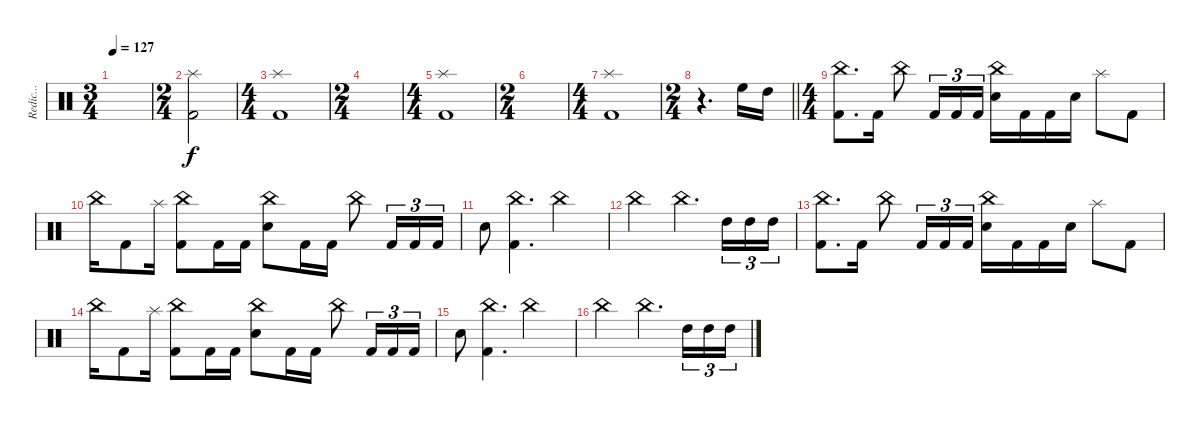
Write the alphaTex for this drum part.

\track ("Redic..." "Redic...") {instrument percussion}
\staff {score}
\articulation defaults
\ts (3 4)
\tempo 127
\clef neutral
\ks c
|
\ts (2 4)
("Splash (hit)" "Kick (hit) 2").2 |
\ts (4 4)
("Splash (hit)" "Kick (hit) 2").1 |
\ts (2 4)
|
\ts (4 4)
("Splash (hit)" "Kick (hit) 2").1 |
\ts (2 4)
|
\ts (4 4)
("Splash (hit)" "Kick (hit) 2").1 |
\ts (2 4)
\barLineRight lightlight
r.4{d} "High Floor Tom (hit)".16 "High Tom (hit)".16 |
\ts (4 4)
\section ("" "")
("China (hit)" "Kick (hit) 2").8{d} "Kick (hit) 2".16 "China (hit)".8 "Kick (hit) 2".16{tu (3 2)} "Kick (hit) 2".16{tu (3 2)} "Kick (hit) 2".16{tu (3 2)} ("China (hit)" "Electric Snare (hit)").16 "Kick (hit) 2".16 "Kick (hit) 2".16 "Electric Snare (hit)".16 "Splash (hit)".8 "Kick (hit) 2".8 |
"China (hit)".16 "Kick (hit) 2".8 "Splash (hit)".16 ("China (hit)" "Kick (hit) 2").8 "Kick (hit) 2".16 "Kick (hit) 2".16 ("China (hit)" "Electric Snare (hit)").8 "Kick (hit) 2".16 "Kick (hit) 2".16 "China (hit)".8 "Kick (hit) 2".16{tu (3 2)} "Kick (hit) 2".16{tu (3 2)} "Kick (hit) 2".16{tu (3 2)} |
"Electric Snare (hit)".8 ("China (hit)" "Kick (hit) 2").4{d} "China (hit)".2 |
"China (hit)".2 "China (hit)".4{d} "High Tom (hit)".16{tu (3 2)} "High Tom (hit)".16{tu (3 2)} "High Tom (hit)".16{tu (3 2)} |
("China (hit)" "Kick (hit) 2").8{d} "Kick (hit) 2".16 "China (hit)".8 "Kick (hit) 2".16{tu (3 2)} "Kick (hit) 2".16{tu (3 2)} "Kick (hit) 2".16{tu (3 2)} ("China (hit)" "Electric Snare (hit)").16 "Kick (hit) 2".16 "Kick (hit) 2".16 "Electric Snare (hit)".16 "Splash (hit)".8 "Kick (hit) 2".8 |
"China (hit)".16 "Kick (hit) 2".8 "Splash (hit)".16 ("China (hit)" "Kick (hit) 2").8 "Kick (hit) 2".16 "Kick (hit) 2".16 ("China (hit)" "Electric Snare (hit)").8 "Kick (hit) 2".16 "Kick (hit) 2".16 "China (hit)".8 "Kick (hit) 2".16{tu (3 2)} "Kick (hit) 2".16{tu (3 2)} "Kick (hit) 2".16{tu (3 2)} |
"Electric Snare (hit)".8 ("China (hit)" "Kick (hit) 2").4{d} "China (hit)".2 |
"China (hit)".2 "China (hit)".4{d} "High Tom (hit)".16{tu (3 2)} "High Tom (hit)".16{tu (3 2)} "High Tom (hit)".16{tu (3 2)}
